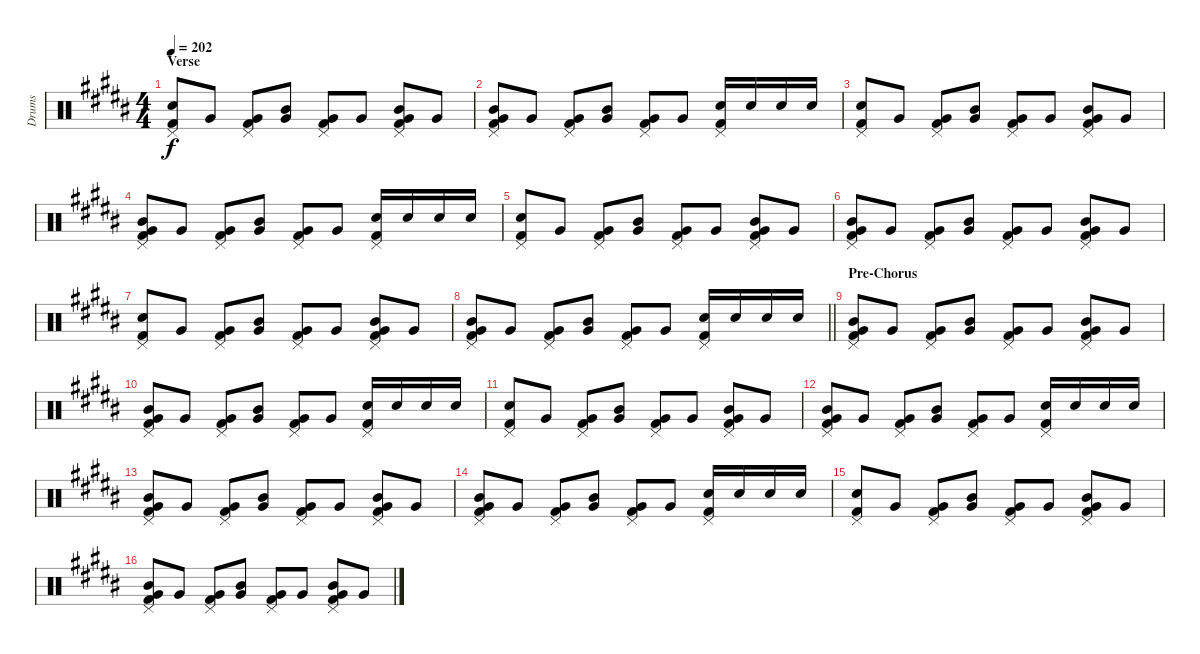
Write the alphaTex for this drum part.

\track ("Drums" "Drums") {instrument percussion}
\staff {score}
\articulation defaults
\ts (4 4)
\section ("" "Verse")
\tempo 202
\clef neutral
\ks g#minor
("Pedal Hi-Hat (hit)" "Electric Snare (hit)" "Kick (hit) 2").8{dy f} "Very Low Tom (hit)".8 ("Pedal Hi-Hat (hit)" "Very Low Tom (hit)" "Kick (hit) 2").8 ("Mid Tom (hit)" "Very Low Tom (hit)").8 ("Pedal Hi-Hat (hit)" "Very Low Tom (hit)" "Kick (hit) 2").8 "Very Low Tom (hit)".8 ("Pedal Hi-Hat (hit)" "Mid Tom (hit)" "Very Low Tom (hit)" "Kick (hit) 2").8 "Very Low Tom (hit)".8 |
("Pedal Hi-Hat (hit)" "Mid Tom (hit)" "Very Low Tom (hit)" "Kick (hit) 2").8 "Very Low Tom (hit)".8 ("Pedal Hi-Hat (hit)" "Very Low Tom (hit)" "Kick (hit) 2").8 ("Mid Tom (hit)" "Very Low Tom (hit)").8 ("Pedal Hi-Hat (hit)" "Very Low Tom (hit)" "Kick (hit) 2").8 "Very Low Tom (hit)".8 ("Pedal Hi-Hat (hit)" "Electric Snare (hit)" "Kick (hit) 2").16 "Electric Snare (hit)".16 "Electric Snare (hit)".16 "Electric Snare (hit)".16 |
("Pedal Hi-Hat (hit)" "Electric Snare (hit)" "Kick (hit) 2").8 "Very Low Tom (hit)".8 ("Pedal Hi-Hat (hit)" "Very Low Tom (hit)" "Kick (hit) 2").8 ("Mid Tom (hit)" "Very Low Tom (hit)").8 ("Pedal Hi-Hat (hit)" "Very Low Tom (hit)" "Kick (hit) 2").8 "Very Low Tom (hit)".8 ("Pedal Hi-Hat (hit)" "Mid Tom (hit)" "Very Low Tom (hit)" "Kick (hit) 2").8 "Very Low Tom (hit)".8 |
("Pedal Hi-Hat (hit)" "Mid Tom (hit)" "Very Low Tom (hit)" "Kick (hit) 2").8 "Very Low Tom (hit)".8 ("Pedal Hi-Hat (hit)" "Very Low Tom (hit)" "Kick (hit) 2").8 ("Mid Tom (hit)" "Very Low Tom (hit)").8 ("Pedal Hi-Hat (hit)" "Very Low Tom (hit)" "Kick (hit) 2").8 "Very Low Tom (hit)".8 ("Pedal Hi-Hat (hit)" "Electric Snare (hit)" "Kick (hit) 2").16 "Electric Snare (hit)".16 "Electric Snare (hit)".16 "Electric Snare (hit)".16 |
("Pedal Hi-Hat (hit)" "Electric Snare (hit)" "Kick (hit) 2").8 "Very Low Tom (hit)".8 ("Pedal Hi-Hat (hit)" "Very Low Tom (hit)" "Kick (hit) 2").8 ("Mid Tom (hit)" "Very Low Tom (hit)").8 ("Pedal Hi-Hat (hit)" "Very Low Tom (hit)" "Kick (hit) 2").8 "Very Low Tom (hit)".8 ("Pedal Hi-Hat (hit)" "Mid Tom (hit)" "Very Low Tom (hit)" "Kick (hit) 2").8 "Very Low Tom (hit)".8 |
("Pedal Hi-Hat (hit)" "Mid Tom (hit)" "Very Low Tom (hit)" "Kick (hit) 2").8 "Very Low Tom (hit)".8 ("Pedal Hi-Hat (hit)" "Very Low Tom (hit)" "Kick (hit) 2").8 ("Mid Tom (hit)" "Very Low Tom (hit)").8 ("Pedal Hi-Hat (hit)" "Very Low Tom (hit)" "Kick (hit) 2").8 "Very Low Tom (hit)".8 ("Pedal Hi-Hat (hit)" "Mid Tom (hit)" "Very Low Tom (hit)" "Kick (hit) 2").8 "Very Low Tom (hit)".8 |
("Pedal Hi-Hat (hit)" "Electric Snare (hit)" "Kick (hit) 2").8 "Very Low Tom (hit)".8 ("Pedal Hi-Hat (hit)" "Very Low Tom (hit)" "Kick (hit) 2").8 ("Mid Tom (hit)" "Very Low Tom (hit)").8 ("Pedal Hi-Hat (hit)" "Very Low Tom (hit)" "Kick (hit) 2").8 "Very Low Tom (hit)".8 ("Pedal Hi-Hat (hit)" "Mid Tom (hit)" "Very Low Tom (hit)" "Kick (hit) 2").8 "Very Low Tom (hit)".8 |
\barLineRight lightlight
("Pedal Hi-Hat (hit)" "Mid Tom (hit)" "Very Low Tom (hit)" "Kick (hit) 2").8 "Very Low Tom (hit)".8 ("Pedal Hi-Hat (hit)" "Very Low Tom (hit)" "Kick (hit) 2").8 ("Mid Tom (hit)" "Very Low Tom (hit)").8 ("Pedal Hi-Hat (hit)" "Very Low Tom (hit)" "Kick (hit) 2").8 "Very Low Tom (hit)".8 ("Pedal Hi-Hat (hit)" "Electric Snare (hit)" "Kick (hit) 2").16 "Electric Snare (hit)".16 "Electric Snare (hit)".16 "Electric Snare (hit)".16 |
\section ("" "Pre-Chorus")
("Pedal Hi-Hat (hit)" "Mid Tom (hit)" "Very Low Tom (hit)" "Kick (hit) 2").8 "Very Low Tom (hit)".8 ("Pedal Hi-Hat (hit)" "Very Low Tom (hit)" "Kick (hit) 2").8 ("Mid Tom (hit)" "Very Low Tom (hit)").8 ("Pedal Hi-Hat (hit)" "Very Low Tom (hit)" "Kick (hit) 2").8 "Very Low Tom (hit)".8 ("Pedal Hi-Hat (hit)" "Mid Tom (hit)" "Very Low Tom (hit)" "Kick (hit) 2").8 "Very Low Tom (hit)".8 |
("Pedal Hi-Hat (hit)" "Mid Tom (hit)" "Very Low Tom (hit)" "Kick (hit) 2").8 "Very Low Tom (hit)".8 ("Pedal Hi-Hat (hit)" "Very Low Tom (hit)" "Kick (hit) 2").8 ("Mid Tom (hit)" "Very Low Tom (hit)").8 ("Pedal Hi-Hat (hit)" "Very Low Tom (hit)" "Kick (hit) 2").8 "Very Low Tom (hit)".8 ("Pedal Hi-Hat (hit)" "Electric Snare (hit)" "Kick (hit) 2").16 "Electric Snare (hit)".16 "Electric Snare (hit)".16 "Electric Snare (hit)".16 |
("Pedal Hi-Hat (hit)" "Electric Snare (hit)" "Kick (hit) 2").8 "Very Low Tom (hit)".8 ("Pedal Hi-Hat (hit)" "Very Low Tom (hit)" "Kick (hit) 2").8 ("Mid Tom (hit)" "Very Low Tom (hit)").8 ("Pedal Hi-Hat (hit)" "Very Low Tom (hit)" "Kick (hit) 2").8 "Very Low Tom (hit)".8 ("Pedal Hi-Hat (hit)" "Mid Tom (hit)" "Very Low Tom (hit)" "Kick (hit) 2").8 "Very Low Tom (hit)".8 |
("Pedal Hi-Hat (hit)" "Mid Tom (hit)" "Very Low Tom (hit)" "Kick (hit) 2").8 "Very Low Tom (hit)".8 ("Pedal Hi-Hat (hit)" "Very Low Tom (hit)" "Kick (hit) 2").8 ("Mid Tom (hit)" "Very Low Tom (hit)").8 ("Pedal Hi-Hat (hit)" "Very Low Tom (hit)" "Kick (hit) 2").8 "Very Low Tom (hit)".8 ("Pedal Hi-Hat (hit)" "Electric Snare (hit)" "Kick (hit) 2").16 "Electric Snare (hit)".16 "Electric Snare (hit)".16 "Electric Snare (hit)".16 |
("Pedal Hi-Hat (hit)" "Mid Tom (hit)" "Very Low Tom (hit)" "Kick (hit) 2").8 "Very Low Tom (hit)".8 ("Pedal Hi-Hat (hit)" "Very Low Tom (hit)" "Kick (hit) 2").8 ("Mid Tom (hit)" "Very Low Tom (hit)").8 ("Pedal Hi-Hat (hit)" "Very Low Tom (hit)" "Kick (hit) 2").8 "Very Low Tom (hit)".8 ("Pedal Hi-Hat (hit)" "Mid Tom (hit)" "Very Low Tom (hit)" "Kick (hit) 2").8 "Very Low Tom (hit)".8 |
("Pedal Hi-Hat (hit)" "Mid Tom (hit)" "Very Low Tom (hit)" "Kick (hit) 2").8 "Very Low Tom (hit)".8 ("Pedal Hi-Hat (hit)" "Very Low Tom (hit)" "Kick (hit) 2").8 ("Mid Tom (hit)" "Very Low Tom (hit)").8 ("Pedal Hi-Hat (hit)" "Very Low Tom (hit)" "Kick (hit) 2").8 "Very Low Tom (hit)".8 ("Pedal Hi-Hat (hit)" "Electric Snare (hit)" "Kick (hit) 2").16 "Electric Snare (hit)".16 "Electric Snare (hit)".16 "Electric Snare (hit)".16 |
("Pedal Hi-Hat (hit)" "Electric Snare (hit)" "Kick (hit) 2").8 "Very Low Tom (hit)".8 ("Pedal Hi-Hat (hit)" "Very Low Tom (hit)" "Kick (hit) 2").8 ("Mid Tom (hit)" "Very Low Tom (hit)").8 ("Pedal Hi-Hat (hit)" "Very Low Tom (hit)" "Kick (hit) 2").8 "Very Low Tom (hit)".8 ("Pedal Hi-Hat (hit)" "Mid Tom (hit)" "Very Low Tom (hit)" "Kick (hit) 2").8 "Very Low Tom (hit)".8 |
("Pedal Hi-Hat (hit)" "Mid Tom (hit)" "Very Low Tom (hit)" "Kick (hit) 2").8 "Very Low Tom (hit)".8 ("Pedal Hi-Hat (hit)" "Very Low Tom (hit)" "Kick (hit) 2").8 ("Mid Tom (hit)" "Very Low Tom (hit)").8 ("Pedal Hi-Hat (hit)" "Very Low Tom (hit)" "Kick (hit) 2").8 "Very Low Tom (hit)".8 ("Pedal Hi-Hat (hit)" "Mid Tom (hit)" "Very Low Tom (hit)" "Kick (hit) 2").8 "Very Low Tom (hit)".8
